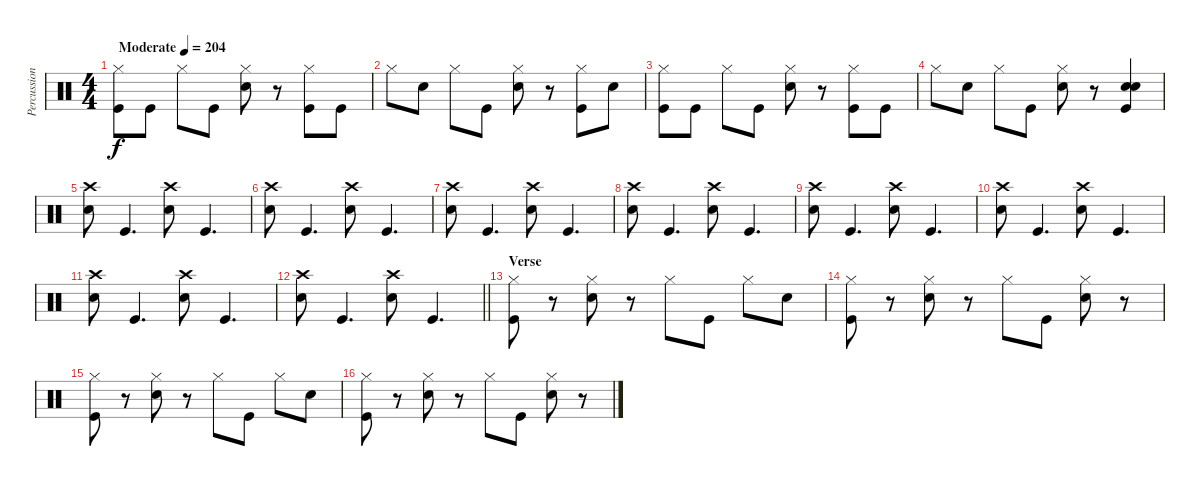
\track ("Percussion" "Percussion") {instrument percussion}
\staff {score}
\articulation defaults
\ts (4 4)
\tempo (204 "Moderate")
\clef neutral
\ks c
("Hi-Hat (closed)" "Kick (hit)").8{dy f volume 7} "Kick (hit)".8 "Hi-Hat (closed)".8 "Kick (hit)".8 ("Hi-Hat (closed)" "Snare (hit) 2").8 r.8 ("Hi-Hat (closed)" "Kick (hit)").8 "Kick (hit)".8 |
"Hi-Hat (closed)".8 "Snare (hit) 2".8 "Hi-Hat (closed)".8 "Kick (hit)".8 ("Hi-Hat (closed)" "Snare (hit) 2").8 r.8 ("Hi-Hat (closed)" "Kick (hit)").8 "Snare (hit) 2".8 |
("Hi-Hat (closed)" "Kick (hit)").8 "Kick (hit)".8 "Hi-Hat (closed)".8 "Kick (hit)".8 ("Hi-Hat (closed)" "Snare (hit) 2").8 r.8 ("Hi-Hat (closed)" "Kick (hit)").8 "Kick (hit)".8 |
"Hi-Hat (closed)".8 "Snare (hit) 2".8 "Hi-Hat (closed)".8 "Kick (hit)".8 ("Hi-Hat (closed)" "Snare (hit) 2").8 r.8 ("Snare (hit) 2" "Snare (hit) 2" "Kick (hit)").4{volume 16} |
("Crash high (hit)" "Snare (hit) 2").8 "Kick (hit)".4{d} ("Crash high (hit)" "Snare (hit) 2").8 "Kick (hit)".4{d} |
("Crash high (hit)" "Snare (hit) 2").8 "Kick (hit)".4{d} ("Crash high (hit)" "Snare (hit) 2").8 "Kick (hit)".4{d} |
("Crash high (hit)" "Snare (hit) 2").8 "Kick (hit)".4{d} ("Crash high (hit)" "Snare (hit) 2").8 "Kick (hit)".4{d} |
("Crash high (hit)" "Snare (hit) 2").8 "Kick (hit)".4{d} ("Crash high (hit)" "Snare (hit) 2").8 "Kick (hit)".4{d} |
("Crash high (hit)" "Snare (hit) 2").8 "Kick (hit)".4{d} ("Crash high (hit)" "Snare (hit) 2").8 "Kick (hit)".4{d} |
("Crash high (hit)" "Snare (hit) 2").8 "Kick (hit)".4{d} ("Crash high (hit)" "Snare (hit) 2").8 "Kick (hit)".4{d} |
("Crash high (hit)" "Snare (hit) 2").8 "Kick (hit)".4{d} ("Crash high (hit)" "Snare (hit) 2").8 "Kick (hit)".4{d} |
\barLineRight lightlight
("Crash high (hit)" "Snare (hit) 2").8 "Kick (hit)".4{d} ("Crash high (hit)" "Snare (hit) 2").8 "Kick (hit)".4{d} |
\section ("" "Verse")
("Hi-Hat (closed)" "Kick (hit)").8 r.8 ("Hi-Hat (closed)" "Snare (hit) 2").8 r.8 "Hi-Hat (closed)".8 "Kick (hit)".8 "Hi-Hat (closed)".8 "Snare (hit) 2".8 |
("Hi-Hat (closed)" "Kick (hit)").8 r.8 ("Hi-Hat (closed)" "Snare (hit) 2").8 r.8 "Hi-Hat (closed)".8 "Kick (hit)".8 ("Hi-Hat (closed)" "Snare (hit) 2").8 r.8 |
("Hi-Hat (closed)" "Kick (hit)").8 r.8 ("Hi-Hat (closed)" "Snare (hit) 2").8 r.8 "Hi-Hat (closed)".8 "Kick (hit)".8 "Hi-Hat (closed)".8 "Snare (hit) 2".8 |
("Hi-Hat (closed)" "Kick (hit)").8 r.8 ("Hi-Hat (closed)" "Snare (hit) 2").8 r.8 "Hi-Hat (closed)".8 "Kick (hit)".8 ("Hi-Hat (closed)" "Snare (hit) 2").8 r.8
